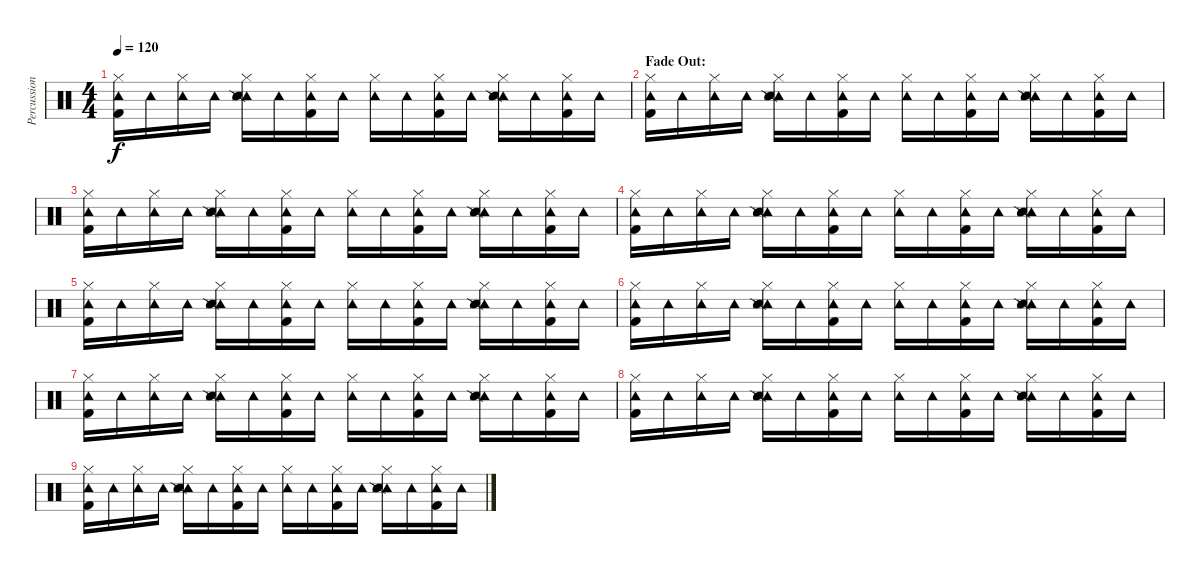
\track ("Percussion" "Percussion") {instrument percussion}
\staff {score}
\articulation defaults
\ts (4 4)
\tempo 120
\clef neutral
\ks c
("Hi-Hat (closed)" "Tambourine (hit)" "Kick (hit) 2").16{dy f volume 14} "Tambourine (hit)".16 ("Hi-Hat (closed)" "Tambourine (hit)").16 "Tambourine (hit)".16 ("Hi-Hat (closed)" "Tambourine (hit)" "Snare (side stick) 2" "Snare (side stick) 3").16 "Tambourine (hit)".16 ("Hi-Hat (closed)" "Tambourine (hit)" "Kick (hit) 2").16 "Tambourine (hit)".16 ("Hi-Hat (closed)" "Tambourine (hit)").16 "Tambourine (hit)".16 ("Hi-Hat (closed)" "Tambourine (hit)" "Kick (hit) 2").16 "Tambourine (hit)".16 ("Hi-Hat (closed)" "Tambourine (hit)" "Snare (side stick) 2" "Snare (side stick) 3").16 "Tambourine (hit)".16 ("Hi-Hat (closed)" "Tambourine (hit)" "Kick (hit) 2").16 "Tambourine (hit)".16 |
\section ("" "Fade Out:")
("Hi-Hat (closed)" "Tambourine (hit)" "Kick (hit) 2").16{volume 6} "Tambourine (hit)".16 ("Hi-Hat (closed)" "Tambourine (hit)").16 "Tambourine (hit)".16 ("Hi-Hat (closed)" "Tambourine (hit)" "Snare (side stick) 2" "Snare (side stick) 3").16 "Tambourine (hit)".16 ("Hi-Hat (closed)" "Tambourine (hit)" "Kick (hit) 2").16 "Tambourine (hit)".16 ("Hi-Hat (closed)" "Tambourine (hit)").16 "Tambourine (hit)".16 ("Hi-Hat (closed)" "Tambourine (hit)" "Kick (hit) 2").16 "Tambourine (hit)".16 ("Hi-Hat (closed)" "Tambourine (hit)" "Snare (side stick) 2" "Snare (side stick) 3").16 "Tambourine (hit)".16 ("Hi-Hat (closed)" "Tambourine (hit)" "Kick (hit) 2").16 "Tambourine (hit)".16 |
("Hi-Hat (closed)" "Tambourine (hit)" "Kick (hit) 2").16 "Tambourine (hit)".16 ("Hi-Hat (closed)" "Tambourine (hit)").16 "Tambourine (hit)".16 ("Hi-Hat (closed)" "Tambourine (hit)" "Snare (side stick) 2" "Snare (side stick) 3").16 "Tambourine (hit)".16 ("Hi-Hat (closed)" "Tambourine (hit)" "Kick (hit) 2").16 "Tambourine (hit)".16 ("Hi-Hat (closed)" "Tambourine (hit)").16 "Tambourine (hit)".16 ("Hi-Hat (closed)" "Tambourine (hit)" "Kick (hit) 2").16 "Tambourine (hit)".16 ("Hi-Hat (closed)" "Tambourine (hit)" "Snare (side stick) 2" "Snare (side stick) 3").16 "Tambourine (hit)".16 ("Hi-Hat (closed)" "Tambourine (hit)" "Kick (hit) 2").16 "Tambourine (hit)".16 |
("Hi-Hat (closed)" "Tambourine (hit)" "Kick (hit) 2").16 "Tambourine (hit)".16 ("Hi-Hat (closed)" "Tambourine (hit)").16 "Tambourine (hit)".16 ("Hi-Hat (closed)" "Tambourine (hit)" "Snare (side stick) 2" "Snare (side stick) 3").16 "Tambourine (hit)".16 ("Hi-Hat (closed)" "Tambourine (hit)" "Kick (hit) 2").16 "Tambourine (hit)".16 ("Hi-Hat (closed)" "Tambourine (hit)").16 "Tambourine (hit)".16 ("Hi-Hat (closed)" "Tambourine (hit)" "Kick (hit) 2").16 "Tambourine (hit)".16 ("Hi-Hat (closed)" "Tambourine (hit)" "Snare (side stick) 2" "Snare (side stick) 3").16 "Tambourine (hit)".16 ("Hi-Hat (closed)" "Tambourine (hit)" "Kick (hit) 2").16 "Tambourine (hit)".16 |
("Hi-Hat (closed)" "Tambourine (hit)" "Kick (hit) 2").16 "Tambourine (hit)".16 ("Hi-Hat (closed)" "Tambourine (hit)").16 "Tambourine (hit)".16 ("Hi-Hat (closed)" "Tambourine (hit)" "Snare (side stick) 2" "Snare (side stick) 3").16 "Tambourine (hit)".16 ("Hi-Hat (closed)" "Tambourine (hit)" "Kick (hit) 2").16 "Tambourine (hit)".16 ("Hi-Hat (closed)" "Tambourine (hit)").16 "Tambourine (hit)".16 ("Hi-Hat (closed)" "Tambourine (hit)" "Kick (hit) 2").16 "Tambourine (hit)".16 ("Hi-Hat (closed)" "Tambourine (hit)" "Snare (side stick) 2" "Snare (side stick) 3").16 "Tambourine (hit)".16 ("Hi-Hat (closed)" "Tambourine (hit)" "Kick (hit) 2").16 "Tambourine (hit)".16 |
("Hi-Hat (closed)" "Tambourine (hit)" "Kick (hit) 2").16{volume 1} "Tambourine (hit)".16 ("Hi-Hat (closed)" "Tambourine (hit)").16 "Tambourine (hit)".16 ("Hi-Hat (closed)" "Tambourine (hit)" "Snare (side stick) 2" "Snare (side stick) 3").16 "Tambourine (hit)".16 ("Hi-Hat (closed)" "Tambourine (hit)" "Kick (hit) 2").16 "Tambourine (hit)".16 ("Hi-Hat (closed)" "Tambourine (hit)").16 "Tambourine (hit)".16 ("Hi-Hat (closed)" "Tambourine (hit)" "Kick (hit) 2").16 "Tambourine (hit)".16 ("Hi-Hat (closed)" "Tambourine (hit)" "Snare (side stick) 2" "Snare (side stick) 3").16 "Tambourine (hit)".16 ("Hi-Hat (closed)" "Tambourine (hit)" "Kick (hit) 2").16 "Tambourine (hit)".16 |
("Hi-Hat (closed)" "Tambourine (hit)" "Kick (hit) 2").16 "Tambourine (hit)".16 ("Hi-Hat (closed)" "Tambourine (hit)").16 "Tambourine (hit)".16 ("Hi-Hat (closed)" "Tambourine (hit)" "Snare (side stick) 2" "Snare (side stick) 3").16 "Tambourine (hit)".16 ("Hi-Hat (closed)" "Tambourine (hit)" "Kick (hit) 2").16 "Tambourine (hit)".16 ("Hi-Hat (closed)" "Tambourine (hit)").16 "Tambourine (hit)".16 ("Hi-Hat (closed)" "Tambourine (hit)" "Kick (hit) 2").16 "Tambourine (hit)".16 ("Hi-Hat (closed)" "Tambourine (hit)" "Snare (side stick) 2" "Snare (side stick) 3").16 "Tambourine (hit)".16 ("Hi-Hat (closed)" "Tambourine (hit)" "Kick (hit) 2").16 "Tambourine (hit)".16 |
("Hi-Hat (closed)" "Tambourine (hit)" "Kick (hit) 2").16 "Tambourine (hit)".16 ("Hi-Hat (closed)" "Tambourine (hit)").16 "Tambourine (hit)".16 ("Hi-Hat (closed)" "Tambourine (hit)" "Snare (side stick) 2" "Snare (side stick) 3").16 "Tambourine (hit)".16 ("Hi-Hat (closed)" "Tambourine (hit)" "Kick (hit) 2").16 "Tambourine (hit)".16 ("Hi-Hat (closed)" "Tambourine (hit)").16 "Tambourine (hit)".16 ("Hi-Hat (closed)" "Tambourine (hit)" "Kick (hit) 2").16 "Tambourine (hit)".16 ("Hi-Hat (closed)" "Tambourine (hit)" "Snare (side stick) 2" "Snare (side stick) 3").16 "Tambourine (hit)".16 ("Hi-Hat (closed)" "Tambourine (hit)" "Kick (hit) 2").16 "Tambourine (hit)".16 |
("Hi-Hat (closed)" "Tambourine (hit)" "Kick (hit) 2").16 "Tambourine (hit)".16 ("Hi-Hat (closed)" "Tambourine (hit)").16 "Tambourine (hit)".16 ("Hi-Hat (closed)" "Tambourine (hit)" "Snare (side stick) 2" "Snare (side stick) 3").16 "Tambourine (hit)".16 ("Hi-Hat (closed)" "Tambourine (hit)" "Kick (hit) 2").16 "Tambourine (hit)".16 ("Hi-Hat (closed)" "Tambourine (hit)").16 "Tambourine (hit)".16 ("Hi-Hat (closed)" "Tambourine (hit)" "Kick (hit) 2").16 "Tambourine (hit)".16 ("Hi-Hat (closed)" "Tambourine (hit)" "Snare (side stick) 2" "Snare (side stick) 3").16 "Tambourine (hit)".16 ("Hi-Hat (closed)" "Tambourine (hit)" "Kick (hit) 2").16 "Tambourine (hit)".16
